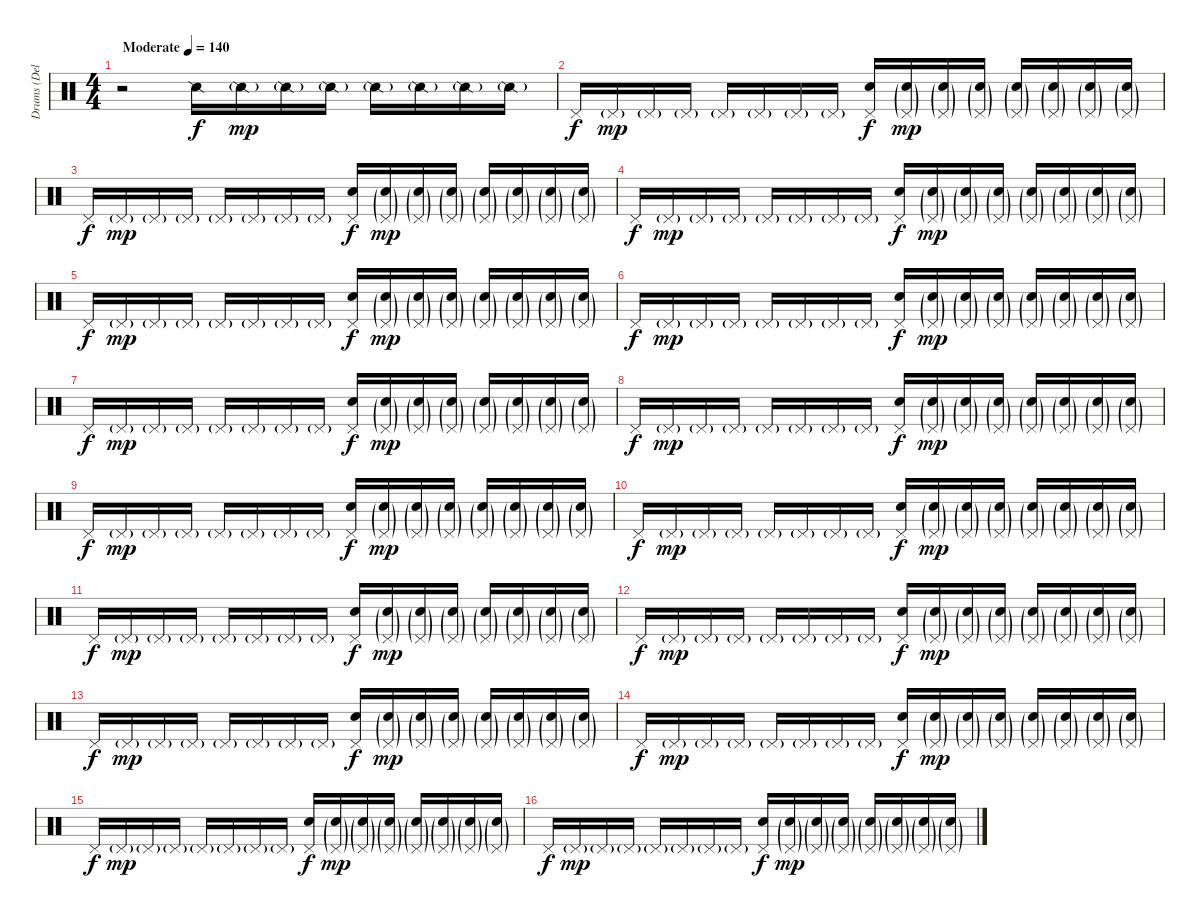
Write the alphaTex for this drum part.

\track ("Drums (Delay Effect)" "Drums (Del") {instrument percussion}
\staff {score}
\articulation defaults
\ts (4 4)
\tempo (140 "Moderate")
\clef neutral
\ks c
r.2{dy f} "Snare (side stick) 2".16 "Snare (side stick) 2"{g}.16{dy mp} "Snare (side stick) 2"{g}.16 "Snare (side stick) 2"{g}.16 "Snare (side stick) 2"{g}.16 "Snare (side stick) 2"{g}.16 "Snare (side stick) 2"{g}.16 "Snare (side stick) 2"{g}.16 |
"Pedal Hi-Hat (hit)".16{dy f} "Pedal Hi-Hat (hit)"{g}.16{dy mp} "Pedal Hi-Hat (hit)"{g}.16 "Pedal Hi-Hat (hit)"{g}.16 "Pedal Hi-Hat (hit)"{g}.16 "Pedal Hi-Hat (hit)"{g}.16 "Pedal Hi-Hat (hit)"{g}.16 "Pedal Hi-Hat (hit)"{g}.16 ("Pedal Hi-Hat (hit)" "Electric Snare (hit)").16{dy f} ("Pedal Hi-Hat (hit)"{g} "Electric Snare (hit)"{g}).16{dy mp} ("Pedal Hi-Hat (hit)"{g} "Electric Snare (hit)"{g}).16 ("Pedal Hi-Hat (hit)"{g} "Electric Snare (hit)"{g}).16 ("Pedal Hi-Hat (hit)"{g} "Electric Snare (hit)"{g}).16 ("Pedal Hi-Hat (hit)"{g} "Electric Snare (hit)"{g}).16 ("Pedal Hi-Hat (hit)"{g} "Electric Snare (hit)"{g}).16 ("Pedal Hi-Hat (hit)"{g} "Electric Snare (hit)"{g}).16 |
"Pedal Hi-Hat (hit)".16{dy f} "Pedal Hi-Hat (hit)"{g}.16{dy mp} "Pedal Hi-Hat (hit)"{g}.16 "Pedal Hi-Hat (hit)"{g}.16 "Pedal Hi-Hat (hit)"{g}.16 "Pedal Hi-Hat (hit)"{g}.16 "Pedal Hi-Hat (hit)"{g}.16 "Pedal Hi-Hat (hit)"{g}.16 ("Pedal Hi-Hat (hit)" "Electric Snare (hit)").16{dy f} ("Pedal Hi-Hat (hit)"{g} "Electric Snare (hit)"{g}).16{dy mp} ("Pedal Hi-Hat (hit)"{g} "Electric Snare (hit)"{g}).16 ("Pedal Hi-Hat (hit)"{g} "Electric Snare (hit)"{g}).16 ("Pedal Hi-Hat (hit)"{g} "Electric Snare (hit)"{g}).16 ("Pedal Hi-Hat (hit)"{g} "Electric Snare (hit)"{g}).16 ("Pedal Hi-Hat (hit)"{g} "Electric Snare (hit)"{g}).16 ("Pedal Hi-Hat (hit)"{g} "Electric Snare (hit)"{g}).16 |
"Pedal Hi-Hat (hit)".16{dy f} "Pedal Hi-Hat (hit)"{g}.16{dy mp} "Pedal Hi-Hat (hit)"{g}.16 "Pedal Hi-Hat (hit)"{g}.16 "Pedal Hi-Hat (hit)"{g}.16 "Pedal Hi-Hat (hit)"{g}.16 "Pedal Hi-Hat (hit)"{g}.16 "Pedal Hi-Hat (hit)"{g}.16 ("Pedal Hi-Hat (hit)" "Electric Snare (hit)").16{dy f} ("Pedal Hi-Hat (hit)"{g} "Electric Snare (hit)"{g}).16{dy mp} ("Pedal Hi-Hat (hit)"{g} "Electric Snare (hit)"{g}).16 ("Pedal Hi-Hat (hit)"{g} "Electric Snare (hit)"{g}).16 ("Pedal Hi-Hat (hit)"{g} "Electric Snare (hit)"{g}).16 ("Pedal Hi-Hat (hit)"{g} "Electric Snare (hit)"{g}).16 ("Pedal Hi-Hat (hit)"{g} "Electric Snare (hit)"{g}).16 ("Pedal Hi-Hat (hit)"{g} "Electric Snare (hit)"{g}).16 |
"Pedal Hi-Hat (hit)".16{dy f} "Pedal Hi-Hat (hit)"{g}.16{dy mp} "Pedal Hi-Hat (hit)"{g}.16 "Pedal Hi-Hat (hit)"{g}.16 "Pedal Hi-Hat (hit)"{g}.16 "Pedal Hi-Hat (hit)"{g}.16 "Pedal Hi-Hat (hit)"{g}.16 "Pedal Hi-Hat (hit)"{g}.16 ("Pedal Hi-Hat (hit)" "Electric Snare (hit)").16{dy f} ("Pedal Hi-Hat (hit)"{g} "Electric Snare (hit)"{g}).16{dy mp} ("Pedal Hi-Hat (hit)"{g} "Electric Snare (hit)"{g}).16 ("Pedal Hi-Hat (hit)"{g} "Electric Snare (hit)"{g}).16 ("Pedal Hi-Hat (hit)"{g} "Electric Snare (hit)"{g}).16 ("Pedal Hi-Hat (hit)"{g} "Electric Snare (hit)"{g}).16 ("Pedal Hi-Hat (hit)"{g} "Electric Snare (hit)"{g}).16 ("Pedal Hi-Hat (hit)"{g} "Electric Snare (hit)"{g}).16 |
"Pedal Hi-Hat (hit)".16{dy f} "Pedal Hi-Hat (hit)"{g}.16{dy mp} "Pedal Hi-Hat (hit)"{g}.16 "Pedal Hi-Hat (hit)"{g}.16 "Pedal Hi-Hat (hit)"{g}.16 "Pedal Hi-Hat (hit)"{g}.16 "Pedal Hi-Hat (hit)"{g}.16 "Pedal Hi-Hat (hit)"{g}.16 ("Pedal Hi-Hat (hit)" "Electric Snare (hit)").16{dy f} ("Pedal Hi-Hat (hit)"{g} "Electric Snare (hit)"{g}).16{dy mp} ("Pedal Hi-Hat (hit)"{g} "Electric Snare (hit)"{g}).16 ("Pedal Hi-Hat (hit)"{g} "Electric Snare (hit)"{g}).16 ("Pedal Hi-Hat (hit)"{g} "Electric Snare (hit)"{g}).16 ("Pedal Hi-Hat (hit)"{g} "Electric Snare (hit)"{g}).16 ("Pedal Hi-Hat (hit)"{g} "Electric Snare (hit)"{g}).16 ("Pedal Hi-Hat (hit)"{g} "Electric Snare (hit)"{g}).16 |
"Pedal Hi-Hat (hit)".16{dy f} "Pedal Hi-Hat (hit)"{g}.16{dy mp} "Pedal Hi-Hat (hit)"{g}.16 "Pedal Hi-Hat (hit)"{g}.16 "Pedal Hi-Hat (hit)"{g}.16 "Pedal Hi-Hat (hit)"{g}.16 "Pedal Hi-Hat (hit)"{g}.16 "Pedal Hi-Hat (hit)"{g}.16 ("Pedal Hi-Hat (hit)" "Electric Snare (hit)").16{dy f} ("Pedal Hi-Hat (hit)"{g} "Electric Snare (hit)"{g}).16{dy mp} ("Pedal Hi-Hat (hit)"{g} "Electric Snare (hit)"{g}).16 ("Pedal Hi-Hat (hit)"{g} "Electric Snare (hit)"{g}).16 ("Pedal Hi-Hat (hit)"{g} "Electric Snare (hit)"{g}).16 ("Pedal Hi-Hat (hit)"{g} "Electric Snare (hit)"{g}).16 ("Pedal Hi-Hat (hit)"{g} "Electric Snare (hit)"{g}).16 ("Pedal Hi-Hat (hit)"{g} "Electric Snare (hit)"{g}).16 |
"Pedal Hi-Hat (hit)".16{dy f} "Pedal Hi-Hat (hit)"{g}.16{dy mp} "Pedal Hi-Hat (hit)"{g}.16 "Pedal Hi-Hat (hit)"{g}.16 "Pedal Hi-Hat (hit)"{g}.16 "Pedal Hi-Hat (hit)"{g}.16 "Pedal Hi-Hat (hit)"{g}.16 "Pedal Hi-Hat (hit)"{g}.16 ("Pedal Hi-Hat (hit)" "Electric Snare (hit)").16{dy f} ("Pedal Hi-Hat (hit)"{g} "Electric Snare (hit)"{g}).16{dy mp} ("Pedal Hi-Hat (hit)"{g} "Electric Snare (hit)"{g}).16 ("Pedal Hi-Hat (hit)"{g} "Electric Snare (hit)"{g}).16 ("Pedal Hi-Hat (hit)"{g} "Electric Snare (hit)"{g}).16 ("Pedal Hi-Hat (hit)"{g} "Electric Snare (hit)"{g}).16 ("Pedal Hi-Hat (hit)"{g} "Electric Snare (hit)"{g}).16 ("Pedal Hi-Hat (hit)"{g} "Electric Snare (hit)"{g}).16 |
"Pedal Hi-Hat (hit)".16{dy f} "Pedal Hi-Hat (hit)"{g}.16{dy mp} "Pedal Hi-Hat (hit)"{g}.16 "Pedal Hi-Hat (hit)"{g}.16 "Pedal Hi-Hat (hit)"{g}.16 "Pedal Hi-Hat (hit)"{g}.16 "Pedal Hi-Hat (hit)"{g}.16 "Pedal Hi-Hat (hit)"{g}.16 ("Pedal Hi-Hat (hit)" "Electric Snare (hit)").16{dy f} ("Pedal Hi-Hat (hit)"{g} "Electric Snare (hit)"{g}).16{dy mp} ("Pedal Hi-Hat (hit)"{g} "Electric Snare (hit)"{g}).16 ("Pedal Hi-Hat (hit)"{g} "Electric Snare (hit)"{g}).16 ("Pedal Hi-Hat (hit)"{g} "Electric Snare (hit)"{g}).16 ("Pedal Hi-Hat (hit)"{g} "Electric Snare (hit)"{g}).16 ("Pedal Hi-Hat (hit)"{g} "Electric Snare (hit)"{g}).16 ("Pedal Hi-Hat (hit)"{g} "Electric Snare (hit)"{g}).16 |
"Pedal Hi-Hat (hit)".16{dy f} "Pedal Hi-Hat (hit)"{g}.16{dy mp} "Pedal Hi-Hat (hit)"{g}.16 "Pedal Hi-Hat (hit)"{g}.16 "Pedal Hi-Hat (hit)"{g}.16 "Pedal Hi-Hat (hit)"{g}.16 "Pedal Hi-Hat (hit)"{g}.16 "Pedal Hi-Hat (hit)"{g}.16 ("Pedal Hi-Hat (hit)" "Electric Snare (hit)").16{dy f} ("Pedal Hi-Hat (hit)"{g} "Electric Snare (hit)"{g}).16{dy mp} ("Pedal Hi-Hat (hit)"{g} "Electric Snare (hit)"{g}).16 ("Pedal Hi-Hat (hit)"{g} "Electric Snare (hit)"{g}).16 ("Pedal Hi-Hat (hit)"{g} "Electric Snare (hit)"{g}).16 ("Pedal Hi-Hat (hit)"{g} "Electric Snare (hit)"{g}).16 ("Pedal Hi-Hat (hit)"{g} "Electric Snare (hit)"{g}).16 ("Pedal Hi-Hat (hit)"{g} "Electric Snare (hit)"{g}).16 |
"Pedal Hi-Hat (hit)".16{dy f} "Pedal Hi-Hat (hit)"{g}.16{dy mp} "Pedal Hi-Hat (hit)"{g}.16 "Pedal Hi-Hat (hit)"{g}.16 "Pedal Hi-Hat (hit)"{g}.16 "Pedal Hi-Hat (hit)"{g}.16 "Pedal Hi-Hat (hit)"{g}.16 "Pedal Hi-Hat (hit)"{g}.16 ("Pedal Hi-Hat (hit)" "Electric Snare (hit)").16{dy f} ("Pedal Hi-Hat (hit)"{g} "Electric Snare (hit)"{g}).16{dy mp} ("Pedal Hi-Hat (hit)"{g} "Electric Snare (hit)"{g}).16 ("Pedal Hi-Hat (hit)"{g} "Electric Snare (hit)"{g}).16 ("Pedal Hi-Hat (hit)"{g} "Electric Snare (hit)"{g}).16 ("Pedal Hi-Hat (hit)"{g} "Electric Snare (hit)"{g}).16 ("Pedal Hi-Hat (hit)"{g} "Electric Snare (hit)"{g}).16 ("Pedal Hi-Hat (hit)"{g} "Electric Snare (hit)"{g}).16 |
"Pedal Hi-Hat (hit)".16{dy f} "Pedal Hi-Hat (hit)"{g}.16{dy mp} "Pedal Hi-Hat (hit)"{g}.16 "Pedal Hi-Hat (hit)"{g}.16 "Pedal Hi-Hat (hit)"{g}.16 "Pedal Hi-Hat (hit)"{g}.16 "Pedal Hi-Hat (hit)"{g}.16 "Pedal Hi-Hat (hit)"{g}.16 ("Pedal Hi-Hat (hit)" "Electric Snare (hit)").16{dy f} ("Pedal Hi-Hat (hit)"{g} "Electric Snare (hit)"{g}).16{dy mp} ("Pedal Hi-Hat (hit)"{g} "Electric Snare (hit)"{g}).16 ("Pedal Hi-Hat (hit)"{g} "Electric Snare (hit)"{g}).16 ("Pedal Hi-Hat (hit)"{g} "Electric Snare (hit)"{g}).16 ("Pedal Hi-Hat (hit)"{g} "Electric Snare (hit)"{g}).16 ("Pedal Hi-Hat (hit)"{g} "Electric Snare (hit)"{g}).16 ("Pedal Hi-Hat (hit)"{g} "Electric Snare (hit)"{g}).16 |
"Pedal Hi-Hat (hit)".16{dy f} "Pedal Hi-Hat (hit)"{g}.16{dy mp} "Pedal Hi-Hat (hit)"{g}.16 "Pedal Hi-Hat (hit)"{g}.16 "Pedal Hi-Hat (hit)"{g}.16 "Pedal Hi-Hat (hit)"{g}.16 "Pedal Hi-Hat (hit)"{g}.16 "Pedal Hi-Hat (hit)"{g}.16 ("Pedal Hi-Hat (hit)" "Electric Snare (hit)").16{dy f} ("Pedal Hi-Hat (hit)"{g} "Electric Snare (hit)"{g}).16{dy mp} ("Pedal Hi-Hat (hit)"{g} "Electric Snare (hit)"{g}).16 ("Pedal Hi-Hat (hit)"{g} "Electric Snare (hit)"{g}).16 ("Pedal Hi-Hat (hit)"{g} "Electric Snare (hit)"{g}).16 ("Pedal Hi-Hat (hit)"{g} "Electric Snare (hit)"{g}).16 ("Pedal Hi-Hat (hit)"{g} "Electric Snare (hit)"{g}).16 ("Pedal Hi-Hat (hit)"{g} "Electric Snare (hit)"{g}).16 |
"Pedal Hi-Hat (hit)".16{dy f} "Pedal Hi-Hat (hit)"{g}.16{dy mp} "Pedal Hi-Hat (hit)"{g}.16 "Pedal Hi-Hat (hit)"{g}.16 "Pedal Hi-Hat (hit)"{g}.16 "Pedal Hi-Hat (hit)"{g}.16 "Pedal Hi-Hat (hit)"{g}.16 "Pedal Hi-Hat (hit)"{g}.16 ("Pedal Hi-Hat (hit)" "Electric Snare (hit)").16{dy f} ("Pedal Hi-Hat (hit)"{g} "Electric Snare (hit)"{g}).16{dy mp} ("Pedal Hi-Hat (hit)"{g} "Electric Snare (hit)"{g}).16 ("Pedal Hi-Hat (hit)"{g} "Electric Snare (hit)"{g}).16 ("Pedal Hi-Hat (hit)"{g} "Electric Snare (hit)"{g}).16 ("Pedal Hi-Hat (hit)"{g} "Electric Snare (hit)"{g}).16 ("Pedal Hi-Hat (hit)"{g} "Electric Snare (hit)"{g}).16 ("Pedal Hi-Hat (hit)"{g} "Electric Snare (hit)"{g}).16 |
"Pedal Hi-Hat (hit)".16{dy f} "Pedal Hi-Hat (hit)"{g}.16{dy mp} "Pedal Hi-Hat (hit)"{g}.16 "Pedal Hi-Hat (hit)"{g}.16 "Pedal Hi-Hat (hit)"{g}.16 "Pedal Hi-Hat (hit)"{g}.16 "Pedal Hi-Hat (hit)"{g}.16 "Pedal Hi-Hat (hit)"{g}.16 ("Pedal Hi-Hat (hit)" "Electric Snare (hit)").16{dy f} ("Pedal Hi-Hat (hit)"{g} "Electric Snare (hit)"{g}).16{dy mp} ("Pedal Hi-Hat (hit)"{g} "Electric Snare (hit)"{g}).16 ("Pedal Hi-Hat (hit)"{g} "Electric Snare (hit)"{g}).16 ("Pedal Hi-Hat (hit)"{g} "Electric Snare (hit)"{g}).16 ("Pedal Hi-Hat (hit)"{g} "Electric Snare (hit)"{g}).16 ("Pedal Hi-Hat (hit)"{g} "Electric Snare (hit)"{g}).16 ("Pedal Hi-Hat (hit)"{g} "Electric Snare (hit)"{g}).16 |
"Pedal Hi-Hat (hit)".16{dy f} "Pedal Hi-Hat (hit)"{g}.16{dy mp} "Pedal Hi-Hat (hit)"{g}.16 "Pedal Hi-Hat (hit)"{g}.16 "Pedal Hi-Hat (hit)"{g}.16 "Pedal Hi-Hat (hit)"{g}.16 "Pedal Hi-Hat (hit)"{g}.16 "Pedal Hi-Hat (hit)"{g}.16 ("Pedal Hi-Hat (hit)" "Electric Snare (hit)").16{dy f} ("Pedal Hi-Hat (hit)"{g} "Electric Snare (hit)"{g}).16{dy mp} ("Pedal Hi-Hat (hit)"{g} "Electric Snare (hit)"{g}).16 ("Pedal Hi-Hat (hit)"{g} "Electric Snare (hit)"{g}).16 ("Pedal Hi-Hat (hit)"{g} "Electric Snare (hit)"{g}).16 ("Pedal Hi-Hat (hit)"{g} "Electric Snare (hit)"{g}).16 ("Pedal Hi-Hat (hit)"{g} "Electric Snare (hit)"{g}).16 ("Pedal Hi-Hat (hit)"{g} "Electric Snare (hit)"{g}).16
